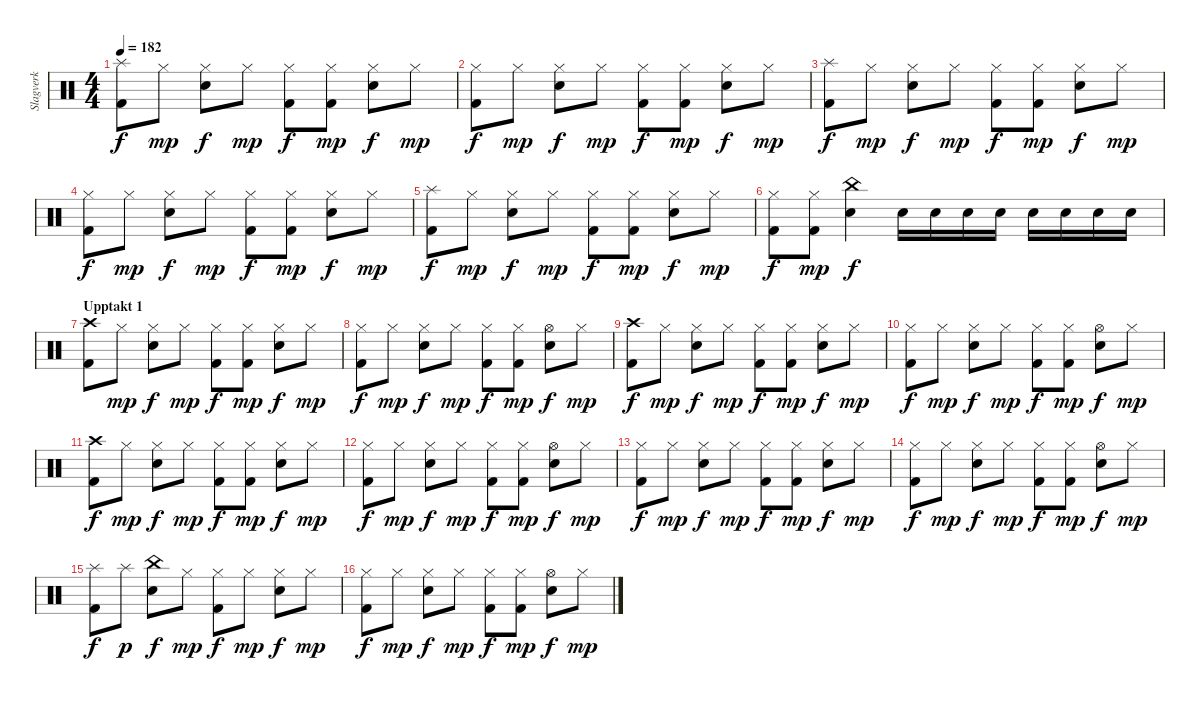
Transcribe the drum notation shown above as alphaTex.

\track ("Slagverk" "Slagverk") {instrument percussion}
\staff {score}
\articulation defaults
\ts (4 4)
\tempo 182
\clef neutral
\ks c
("Splash (hit)" "Kick (hit) 2").8{dy f} "Hi-Hat (closed)".8{dy mp} ("Hi-Hat (closed)" "Electric Snare (hit)").8{dy f} "Hi-Hat (closed)".8{dy mp} ("Hi-Hat (closed)" "Kick (hit) 2").8{dy f} ("Hi-Hat (closed)" "Kick (hit) 2").8{dy mp} ("Hi-Hat (closed)" "Electric Snare (hit)").8{dy f} "Hi-Hat (closed)".8{dy mp} |
("Hi-Hat (closed)" "Kick (hit) 2").8{dy f} "Hi-Hat (closed)".8{dy mp} ("Hi-Hat (closed)" "Electric Snare (hit)").8{dy f} "Hi-Hat (closed)".8{dy mp} ("Hi-Hat (closed)" "Kick (hit) 2").8{dy f} ("Hi-Hat (closed)" "Kick (hit) 2").8{dy mp} ("Hi-Hat (closed)" "Electric Snare (hit)").8{dy f} "Hi-Hat (closed)".8{dy mp} |
("Splash (hit)" "Kick (hit) 2").8{dy f} "Hi-Hat (closed)".8{dy mp} ("Hi-Hat (closed)" "Electric Snare (hit)").8{dy f} "Hi-Hat (closed)".8{dy mp} ("Hi-Hat (closed)" "Kick (hit) 2").8{dy f} ("Hi-Hat (closed)" "Kick (hit) 2").8{dy mp} ("Hi-Hat (closed)" "Electric Snare (hit)").8{dy f} "Hi-Hat (closed)".8{dy mp} |
("Hi-Hat (closed)" "Kick (hit) 2").8{dy f} "Hi-Hat (closed)".8{dy mp} ("Hi-Hat (closed)" "Electric Snare (hit)").8{dy f} "Hi-Hat (closed)".8{dy mp} ("Hi-Hat (closed)" "Kick (hit) 2").8{dy f} ("Hi-Hat (closed)" "Kick (hit) 2").8{dy mp} ("Hi-Hat (closed)" "Electric Snare (hit)").8{dy f} "Hi-Hat (closed)".8{dy mp} |
("Splash (hit)" "Kick (hit) 2").8{dy f} "Hi-Hat (closed)".8{dy mp} ("Hi-Hat (closed)" "Electric Snare (hit)").8{dy f} "Hi-Hat (closed)".8{dy mp} ("Hi-Hat (closed)" "Kick (hit) 2").8{dy f} ("Hi-Hat (closed)" "Kick (hit) 2").8{dy mp} ("Hi-Hat (closed)" "Electric Snare (hit)").8{dy f} "Hi-Hat (closed)".8{dy mp} |
("Hi-Hat (closed)" "Kick (hit) 2").8{dy f} ("Hi-Hat (closed)" "Kick (hit) 2").8{dy mp} ("China (hit)" "Electric Snare (hit)").4{dy f} "Electric Snare (hit)".16 "Electric Snare (hit)".16 "Electric Snare (hit)".16 "Electric Snare (hit)".16 "Electric Snare (hit)".16 "Electric Snare (hit)".16 "Electric Snare (hit)".16 "Electric Snare (hit)".16 |
\section ("" "Upptakt 1")
("Crash high (hit)" "Kick (hit) 2").8 "Hi-Hat (closed)".8{dy mp} ("Hi-Hat (closed)" "Electric Snare (hit)").8{dy f} "Hi-Hat (closed)".8{dy mp} ("Hi-Hat (closed)" "Kick (hit) 2").8{dy f} ("Hi-Hat (closed)" "Kick (hit) 2").8{dy mp} ("Hi-Hat (closed)" "Electric Snare (hit)").8{dy f} "Hi-Hat (closed)".8{dy mp} |
("Hi-Hat (closed)" "Kick (hit) 2").8{dy f} "Hi-Hat (closed)".8{dy mp} ("Hi-Hat (closed)" "Electric Snare (hit)").8{dy f} "Hi-Hat (closed)".8{dy mp} ("Hi-Hat (closed)" "Kick (hit) 2").8{dy f} ("Hi-Hat (closed)" "Kick (hit) 2").8{dy mp} ("Hi-Hat (open)" "Electric Snare (hit)").8{dy f} "Hi-Hat (closed)".8{dy mp} |
("Crash high (hit)" "Kick (hit) 2").8{dy f} "Hi-Hat (closed)".8{dy mp} ("Hi-Hat (closed)" "Electric Snare (hit)").8{dy f} "Hi-Hat (closed)".8{dy mp} ("Hi-Hat (closed)" "Kick (hit) 2").8{dy f} ("Hi-Hat (closed)" "Kick (hit) 2").8{dy mp} ("Hi-Hat (closed)" "Electric Snare (hit)").8{dy f} "Hi-Hat (closed)".8{dy mp} |
("Hi-Hat (closed)" "Kick (hit) 2").8{dy f} "Hi-Hat (closed)".8{dy mp} ("Hi-Hat (closed)" "Electric Snare (hit)").8{dy f} "Hi-Hat (closed)".8{dy mp} ("Hi-Hat (closed)" "Kick (hit) 2").8{dy f} ("Hi-Hat (closed)" "Kick (hit) 2").8{dy mp} ("Hi-Hat (open)" "Electric Snare (hit)").8{dy f} "Hi-Hat (closed)".8{dy mp} |
("Crash high (hit)" "Kick (hit) 2").8{dy f} "Hi-Hat (closed)".8{dy mp} ("Hi-Hat (closed)" "Electric Snare (hit)").8{dy f} "Hi-Hat (closed)".8{dy mp} ("Hi-Hat (closed)" "Kick (hit) 2").8{dy f} ("Hi-Hat (closed)" "Kick (hit) 2").8{dy mp} ("Hi-Hat (closed)" "Electric Snare (hit)").8{dy f} "Hi-Hat (closed)".8{dy mp} |
("Hi-Hat (closed)" "Kick (hit) 2").8{dy f} "Hi-Hat (closed)".8{dy mp} ("Hi-Hat (closed)" "Electric Snare (hit)").8{dy f} "Hi-Hat (closed)".8{dy mp} ("Hi-Hat (closed)" "Kick (hit) 2").8{dy f} ("Hi-Hat (closed)" "Kick (hit) 2").8{dy mp} ("Hi-Hat (open)" "Electric Snare (hit)").8{dy f} "Hi-Hat (closed)".8{dy mp} |
("Hi-Hat (closed)" "Kick (hit) 2").8{dy f} "Hi-Hat (closed)".8{dy mp} ("Hi-Hat (closed)" "Electric Snare (hit)").8{dy f} "Hi-Hat (closed)".8{dy mp} ("Hi-Hat (closed)" "Kick (hit) 2").8{dy f} ("Hi-Hat (closed)" "Kick (hit) 2").8{dy mp} ("Hi-Hat (closed)" "Electric Snare (hit)").8{dy f} "Hi-Hat (closed)".8{dy mp} |
("Hi-Hat (closed)" "Kick (hit) 2").8{dy f} "Hi-Hat (closed)".8{dy mp} ("Hi-Hat (closed)" "Electric Snare (hit)").8{dy f} "Hi-Hat (closed)".8{dy mp} ("Hi-Hat (closed)" "Kick (hit) 2").8{dy f} ("Hi-Hat (closed)" "Kick (hit) 2").8{dy mp} ("Hi-Hat (open)" "Electric Snare (hit)").8{dy f} "Hi-Hat (closed)".8{dy mp} |
("Splash (hit)" "Kick (hit) 2").8{dy f} "Splash (hit)".8{dy p} ("China (hit)" "Electric Snare (hit)").8{dy f} "Hi-Hat (closed)".8{dy mp} ("Hi-Hat (closed)" "Kick (hit) 2").8{dy f} "Hi-Hat (closed)".8{dy mp} ("Hi-Hat (closed)" "Electric Snare (hit)").8{dy f} "Hi-Hat (closed)".8{dy mp} |
("Hi-Hat (closed)" "Kick (hit) 2").8{dy f} "Hi-Hat (closed)".8{dy mp} ("Hi-Hat (closed)" "Electric Snare (hit)").8{dy f} "Hi-Hat (closed)".8{dy mp} ("Hi-Hat (closed)" "Kick (hit) 2").8{dy f} ("Hi-Hat (closed)" "Kick (hit) 2").8{dy mp} ("Hi-Hat (open)" "Electric Snare (hit)").8{dy f} "Hi-Hat (closed)".8{dy mp}
